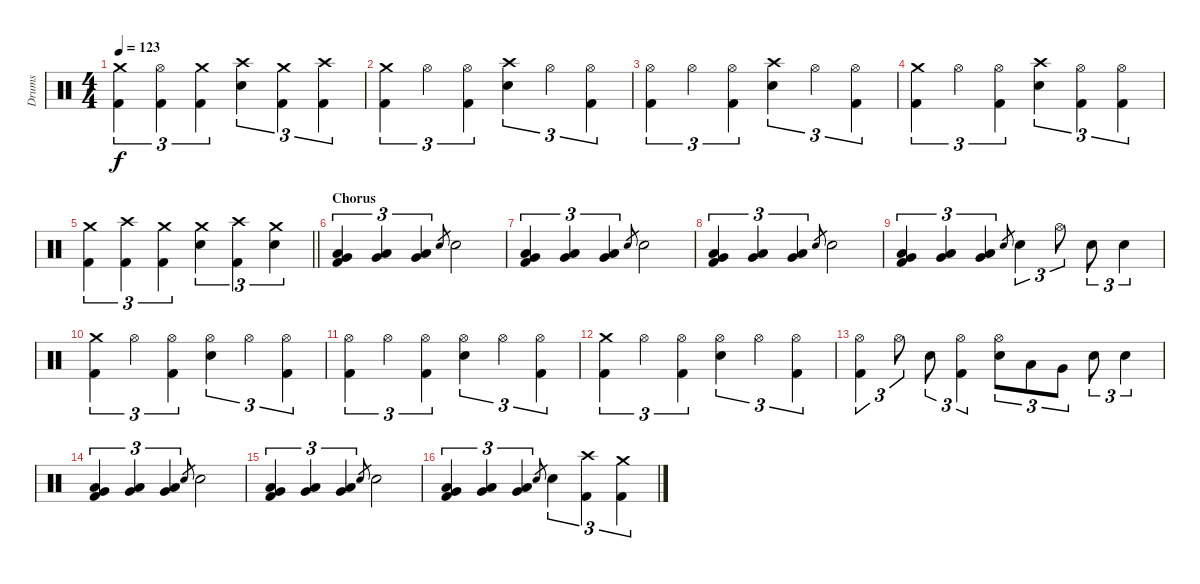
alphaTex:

\track ("Drums" "Drums") {instrument percussion}
\staff {score}
\articulation defaults
\ts (4 4)
\tempo 123
\clef neutral
\ks c
("Crash medium (hit)" "Kick (hit) 2").4{tu (3 2) dy f} ("Hi-Hat (open)" "Kick (hit) 2").4{tu (3 2)} ("Crash medium (hit)" "Kick (hit) 2").4{tu (3 2)} ("Crash high (hit)" "Electric Snare (hit)").4{tu (3 2)} ("Crash medium (hit)" "Kick (hit) 2").4{tu (3 2)} ("Crash high (hit)" "Kick (hit) 2").4{tu (3 2)} |
("Crash medium (hit)" "Kick (hit) 2").4{tu (3 2)} "Hi-Hat (open)".4{tu (3 2)} ("Hi-Hat (open)" "Kick (hit) 2").4{tu (3 2)} ("Crash high (hit)" "Electric Snare (hit)").4{tu (3 2)} "Hi-Hat (open)".4{tu (3 2)} ("Hi-Hat (open)" "Kick (hit) 2").4{tu (3 2)} |
("Hi-Hat (open)" "Kick (hit) 2").4{tu (3 2)} "Hi-Hat (open)".4{tu (3 2)} ("Hi-Hat (open)" "Kick (hit) 2").4{tu (3 2)} ("Crash high (hit)" "Electric Snare (hit)").4{tu (3 2)} "Hi-Hat (open)".4{tu (3 2)} ("Hi-Hat (open)" "Kick (hit) 2").4{tu (3 2)} |
("Crash medium (hit)" "Kick (hit) 2").4{tu (3 2)} "Hi-Hat (open)".4{tu (3 2)} ("Hi-Hat (open)" "Kick (hit) 2").4{tu (3 2)} ("Crash high (hit)" "Electric Snare (hit)").4{tu (3 2)} ("Hi-Hat (open)" "Kick (hit) 2").4{tu (3 2)} ("Hi-Hat (open)" "Kick (hit) 2").4{tu (3 2)} |
\barLineRight lightlight
("Crash medium (hit)" "Kick (hit) 2").4{tu (3 2)} ("Crash high (hit)" "Kick (hit) 2").4{tu (3 2)} ("Crash medium (hit)" "Kick (hit) 2").4{tu (3 2)} ("Crash medium (hit)" "Electric Snare (hit)").4{tu (3 2)} ("Crash high (hit)" "Kick (hit) 2").4{tu (3 2)} ("Crash medium (hit)" "Electric Snare (hit)").4{tu (3 2)} |
\section ("" "Chorus")
("Low Tom (hit)" "Very Low Tom (hit)" "Kick (hit) 2").4{tu (3 2)} ("Low Tom (hit)" "Very Low Tom (hit)").4{tu (3 2)} ("Low Tom (hit)" "Very Low Tom (hit)").4{tu (3 2)} "Electric Snare (hit)".8{gr} "Electric Snare (hit)".2 |
("Low Tom (hit)" "Very Low Tom (hit)" "Kick (hit) 2").4{tu (3 2)} ("Low Tom (hit)" "Very Low Tom (hit)").4{tu (3 2)} ("Low Tom (hit)" "Very Low Tom (hit)").4{tu (3 2)} "Electric Snare (hit)".8{gr} "Electric Snare (hit)".2 |
("Low Tom (hit)" "Very Low Tom (hit)" "Kick (hit) 2").4{tu (3 2)} ("Low Tom (hit)" "Very Low Tom (hit)").4{tu (3 2)} ("Low Tom (hit)" "Very Low Tom (hit)").4{tu (3 2)} "Electric Snare (hit)".8{gr} "Electric Snare (hit)".2 |
("Low Tom (hit)" "Very Low Tom (hit)" "Kick (hit) 2").4{tu (3 2)} ("Low Tom (hit)" "Very Low Tom (hit)").4{tu (3 2)} ("Low Tom (hit)" "Very Low Tom (hit)").4{tu (3 2)} "Electric Snare (hit)".8{gr} "Electric Snare (hit)".4{tu (3 2)} "Hi-Hat (open)".8{tu (3 2)} "Electric Snare (hit)".8{tu (3 2)} "Electric Snare (hit)".4{tu (3 2)} |
("Crash medium (hit)" "Kick (hit) 2").4{tu (3 2)} "Hi-Hat (open)".4{tu (3 2)} ("Hi-Hat (open)" "Kick (hit) 2").4{tu (3 2)} ("Hi-Hat (open)" "Electric Snare (hit)").4{tu (3 2)} "Hi-Hat (open)".4{tu (3 2)} ("Hi-Hat (open)" "Kick (hit) 2").4{tu (3 2)} |
("Hi-Hat (open)" "Kick (hit) 2").4{tu (3 2)} "Hi-Hat (open)".4{tu (3 2)} ("Hi-Hat (open)" "Kick (hit) 2").4{tu (3 2)} ("Hi-Hat (open)" "Electric Snare (hit)").4{tu (3 2)} "Hi-Hat (open)".4{tu (3 2)} ("Hi-Hat (open)" "Kick (hit) 2").4{tu (3 2)} |
("Crash medium (hit)" "Kick (hit) 2").4{tu (3 2)} "Hi-Hat (open)".4{tu (3 2)} ("Hi-Hat (open)" "Kick (hit) 2").4{tu (3 2)} ("Hi-Hat (open)" "Electric Snare (hit)").4{tu (3 2)} "Hi-Hat (open)".4{tu (3 2)} ("Hi-Hat (open)" "Kick (hit) 2").4{tu (3 2)} |
("Hi-Hat (open)" "Kick (hit) 2").4{tu (3 2)} "Hi-Hat (open)".8{tu (3 2)} "Electric Snare (hit)".8{tu (3 2)} ("Hi-Hat (open)" "Kick (hit) 2").4{tu (3 2)} ("Hi-Hat (open)" "Electric Snare (hit)").8{tu (3 2)} "Low Tom (hit)".8{tu (3 2)} "Very Low Tom (hit)".8{tu (3 2)} "Electric Snare (hit)".8{tu (3 2)} "Electric Snare (hit)".4{tu (3 2)} |
("Low Tom (hit)" "Very Low Tom (hit)" "Kick (hit) 2").4{tu (3 2)} ("Low Tom (hit)" "Very Low Tom (hit)").4{tu (3 2)} ("Low Tom (hit)" "Very Low Tom (hit)").4{tu (3 2)} "Electric Snare (hit)".8{gr} "Electric Snare (hit)".2 |
("Low Tom (hit)" "Very Low Tom (hit)" "Kick (hit) 2").4{tu (3 2)} ("Low Tom (hit)" "Very Low Tom (hit)").4{tu (3 2)} ("Low Tom (hit)" "Very Low Tom (hit)").4{tu (3 2)} "Electric Snare (hit)".8{gr} "Electric Snare (hit)".2 |
("Low Tom (hit)" "Very Low Tom (hit)" "Kick (hit) 2").4{tu (3 2)} ("Low Tom (hit)" "Very Low Tom (hit)").4{tu (3 2)} ("Low Tom (hit)" "Very Low Tom (hit)").4{tu (3 2)} "Electric Snare (hit)".8{gr} "Electric Snare (hit)".4{tu (3 2)} ("Crash high (hit)" "Kick (hit) 2").4{tu (3 2)} ("Crash medium (hit)" "Kick (hit) 2").4{tu (3 2)}
